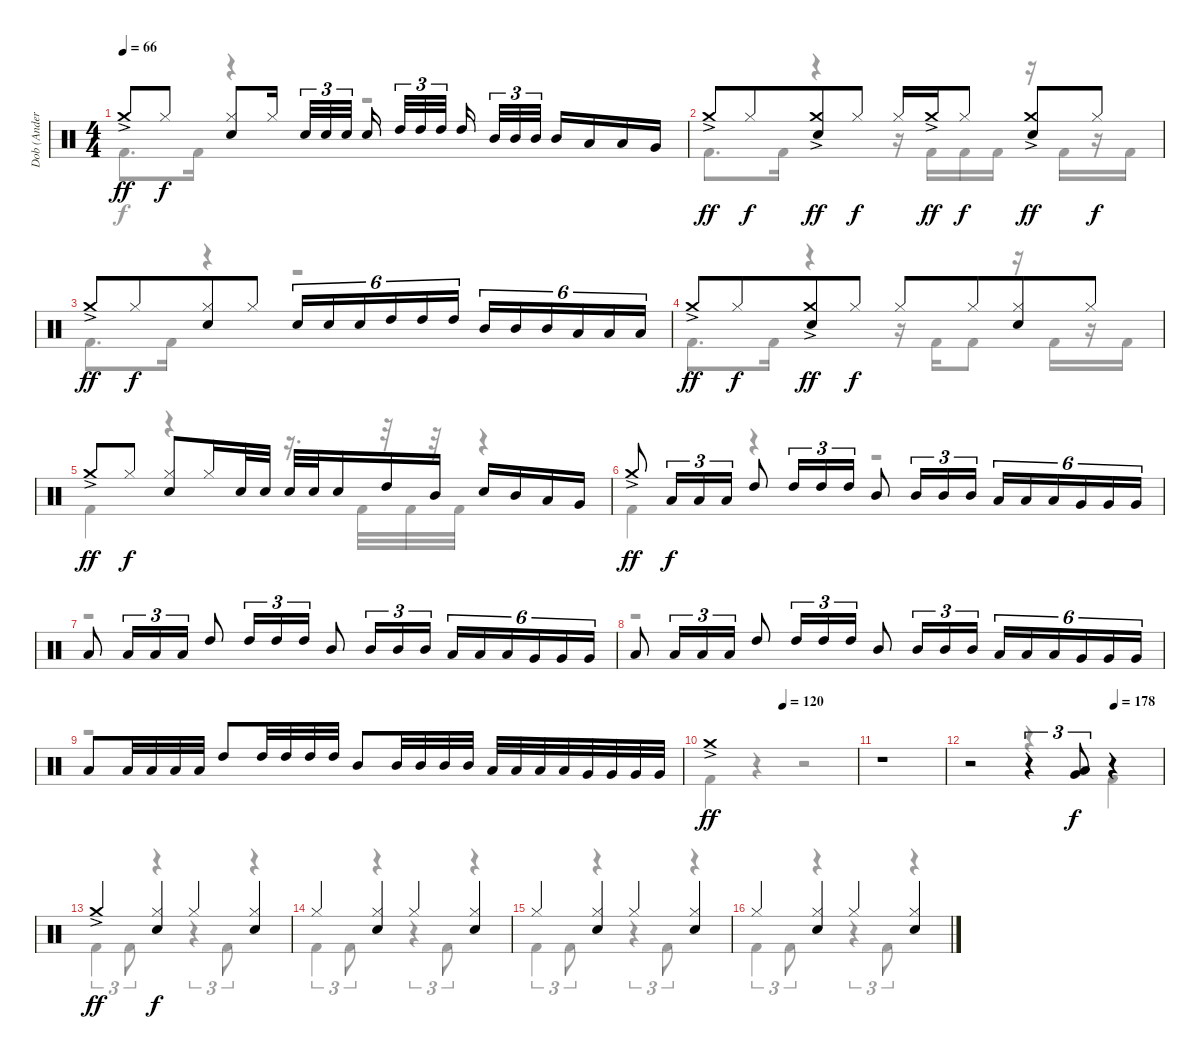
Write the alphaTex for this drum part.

\track ("Dob (Anders Johansson)" "Dob (Ander") {instrument percussion}
\staff {score}
\articulation defaults
\voice
\ts (4 4)
\tempo 66
\clef neutral
\ks c "Crash medium (hit)"{ac}.8{dy ff} "Hi-Hat (closed)".8{dy f beam split}
("Hi-Hat (closed)" "Electric Snare (hit)").8 "Hi-Hat (closed)".16{beam splitsecondary} "Electric Snare (hit)".32{tu (3 2)} "Electric Snare (hit)".32{tu (3 2)} "Electric Snare (hit)".32{tu (3 2)} "Electric Snare (hit)".16{beam splitsecondary} "High Tom (hit)".32{tu (3 2)} "High Tom (hit)".32{tu (3 2)} "High Tom (hit)".32{tu (3 2) beam splitsecondary} "High Tom (hit)".16{beam splitsecondary} "Mid Tom (hit)".32{tu (3 2)} "Mid Tom (hit)".32{tu (3 2)} "Mid Tom (hit)".32{tu (3 2)} "Mid Tom (hit)".16 "Low Tom (hit)".16 "Low Tom (hit)".16 "Very Low Tom (hit)".16 |
"Crash medium (hit)"{ac}.8{dy ff} "Hi-Hat (closed)".8{dy f beam merge} ("Crash medium (hit)"{ac} "Electric Snare (hit)").8{dy ff} "Hi-Hat (closed)".8{dy f} "Hi-Hat (closed)".16 "Crash medium (hit)"{ac}.16{dy ff} "Hi-Hat (closed)".8{dy f beam split} ("Crash medium (hit)"{ac} "Electric Snare (hit)").8{dy ff} "Hi-Hat (closed)".8{dy f} |
"Crash medium (hit)"{ac}.8{dy ff} "Hi-Hat (closed)".8{dy f beam merge} ("Hi-Hat (closed)" "Electric Snare (hit)").8 "Hi-Hat (closed)".8 "Electric Snare (hit)".16{tu (6 4)} "Electric Snare (hit)".16{tu (6 4)} "Electric Snare (hit)".16{tu (6 4)} "High Tom (hit)".16{tu (6 4)} "High Tom (hit)".16{tu (6 4)} "High Tom (hit)".16{tu (6 4)} "Mid Tom (hit)".16{tu (6 4)} "Mid Tom (hit)".16{tu (6 4)} "Mid Tom (hit)".16{tu (6 4)} "Low Tom (hit)".16{tu (6 4)} "Low Tom (hit)".16{tu (6 4)} "Low Tom (hit)".16{tu (6 4)} |
"Crash medium (hit)"{ac}.8{dy ff} "Hi-Hat (closed)".8{dy f beam merge} ("Crash medium (hit)"{ac} "Electric Snare (hit)").8{dy ff} "Hi-Hat (closed)".8{dy f} "Hi-Hat (closed)".8 "Hi-Hat (closed)".8{beam merge} ("Hi-Hat (closed)" "Electric Snare (hit)").8 "Hi-Hat (closed)".8 |
"Crash medium (hit)"{ac}.8{dy ff} "Hi-Hat (closed)".8{dy f beam split} ("Hi-Hat (closed)" "Electric Snare (hit)").8 "Hi-Hat (closed)".16 "Electric Snare (hit)".32 "Electric Snare (hit)".32 "Electric Snare (hit)".32 "Electric Snare (hit)".32 "Electric Snare (hit)".16 "High Tom (hit)".16 "Mid Tom (hit)".16 "Electric Snare (hit)".16 "Mid Tom (hit)".16 "Low Tom (hit)".16 "Very Low Tom (hit)".16 |
"Crash medium (hit)"{ac}.8{dy ff} "Low Tom (hit)".16{tu (3 2) dy f} "Low Tom (hit)".16{tu (3 2)} "Low Tom (hit)".16{tu (3 2)} "High Tom (hit)".8 "High Tom (hit)".16{tu (3 2)} "High Tom (hit)".16{tu (3 2)} "High Tom (hit)".16{tu (3 2)} "Mid Tom (hit)".8 "Mid Tom (hit)".16{tu (3 2)} "Mid Tom (hit)".16{tu (3 2)} "Mid Tom (hit)".16{tu (3 2)} "Low Tom (hit)".16{tu (6 4)} "Low Tom (hit)".16{tu (6 4)} "Low Tom (hit)".16{tu (6 4)} "Very Low Tom (hit)".16{tu (6 4)} "Very Low Tom (hit)".16{tu (6 4)} "Very Low Tom (hit)".16{tu (6 4)} |
"Low Tom (hit)".8 "Low Tom (hit)".16{tu (3 2)} "Low Tom (hit)".16{tu (3 2)} "Low Tom (hit)".16{tu (3 2)} "High Tom (hit)".8 "High Tom (hit)".16{tu (3 2)} "High Tom (hit)".16{tu (3 2)} "High Tom (hit)".16{tu (3 2)} "Mid Tom (hit)".8 "Mid Tom (hit)".16{tu (3 2)} "Mid Tom (hit)".16{tu (3 2)} "Mid Tom (hit)".16{tu (3 2)} "Low Tom (hit)".16{tu (6 4)} "Low Tom (hit)".16{tu (6 4)} "Low Tom (hit)".16{tu (6 4)} "Very Low Tom (hit)".16{tu (6 4)} "Very Low Tom (hit)".16{tu (6 4)} "Very Low Tom (hit)".16{tu (6 4)} |
"Low Tom (hit)".8 "Low Tom (hit)".16{tu (3 2)} "Low Tom (hit)".16{tu (3 2)} "Low Tom (hit)".16{tu (3 2)} "High Tom (hit)".8 "High Tom (hit)".16{tu (3 2)} "High Tom (hit)".16{tu (3 2)} "High Tom (hit)".16{tu (3 2)} "Mid Tom (hit)".8 "Mid Tom (hit)".16{tu (3 2)} "Mid Tom (hit)".16{tu (3 2)} "Mid Tom (hit)".16{tu (3 2)} "Low Tom (hit)".16{tu (6 4)} "Low Tom (hit)".16{tu (6 4)} "Low Tom (hit)".16{tu (6 4)} "Very Low Tom (hit)".16{tu (6 4)} "Very Low Tom (hit)".16{tu (6 4)} "Very Low Tom (hit)".16{tu (6 4)} |
"Low Tom (hit)".8 "Low Tom (hit)".32 "Low Tom (hit)".32 "Low Tom (hit)".32 "Low Tom (hit)".32 "High Tom (hit)".8 "High Tom (hit)".32 "High Tom (hit)".32 "High Tom (hit)".32 "High Tom (hit)".32 "Mid Tom (hit)".8 "Mid Tom (hit)".32 "Mid Tom (hit)".32 "Mid Tom (hit)".32 "Mid Tom (hit)".32 "Low Tom (hit)".32 "Low Tom (hit)".32 "Low Tom (hit)".32 "Low Tom (hit)".32 "Very Low Tom (hit)".32 "Very Low Tom (hit)".32 "Very Low Tom (hit)".32 "Very Low Tom (hit)".32 |
\tempo (120 0.49895833333333334)
"Crash medium (hit)"{ac}.1{dy ff} |
r.1 |
\tempo (178 0.75)
r.2 r.4{tu (3 2)} ("Low Tom (hit)" "Very Low Tom (hit)").8{tu (3 2) dy f} r.4 |
"Crash medium (hit)"{ac}.4{dy ff} ("Hi-Hat (closed)" "Electric Snare (hit)").4{dy f} "Hi-Hat (closed)".4 ("Hi-Hat (closed)" "Electric Snare (hit)").4 |
"Hi-Hat (closed)".4 ("Hi-Hat (closed)" "Electric Snare (hit)").4 "Hi-Hat (closed)".4 ("Hi-Hat (closed)" "Electric Snare (hit)").4 |
"Hi-Hat (closed)".4 ("Hi-Hat (closed)" "Electric Snare (hit)").4 "Hi-Hat (closed)".4 ("Hi-Hat (closed)" "Electric Snare (hit)").4 |
"Hi-Hat (closed)".4 ("Hi-Hat (closed)" "Electric Snare (hit)").4 "Hi-Hat (closed)".4 ("Hi-Hat (closed)" "Electric Snare (hit)").4
\voice
\clef neutral
\ottava regular
\simile none
\ks c "Kick (hit) 2".8{d dy f} "Kick (hit) 2".16
r.4 r.2 |
"Kick (hit) 2".8{d} "Kick (hit) 2".16 r.4 r.16 "Kick (hit) 2".16 "Kick (hit) 2".16 "Kick (hit) 2".16 r.16 "Kick (hit) 2".16 r.16 "Kick (hit) 2".16 |
"Kick (hit) 2".8{d} "Kick (hit) 2".16 r.4 r.2 |
"Kick (hit) 2".8{d} "Kick (hit) 2".16 r.4 r.16 "Kick (hit) 2".16 "Kick (hit) 2".8 r.16 "Kick (hit) 2".16 r.16 "Kick (hit) 2".16 |
"Kick (hit) 2".4 r.4 r.16{d} "Kick (hit) 2".32 r.32 "Kick (hit) 2".32 r.32 "Kick (hit) 2".32 r.4 |
"Kick (hit) 2".4 r.4 r.2 |
r.1 |
r.1 |
r.1 |
"Kick (hit) 2".4 r.4 r.2 |
r.1 |
r.2 r.4 "Kick (hit) 2".4 |
"Kick (hit) 2".4{tu (3 2)} "Kick (hit) 2".8{tu (3 2)} r.4 r.4{tu (3 2)} "Kick (hit) 2".8{tu (3 2)} r.4 |
"Kick (hit) 2".4{tu (3 2)} "Kick (hit) 2".8{tu (3 2)} r.4 r.4{tu (3 2)} "Kick (hit) 2".8{tu (3 2)} r.4 |
"Kick (hit) 2".4{tu (3 2)} "Kick (hit) 2".8{tu (3 2)} r.4 r.4{tu (3 2)} "Kick (hit) 2".8{tu (3 2)} r.4 |
"Kick (hit) 2".4{tu (3 2)} "Kick (hit) 2".8{tu (3 2)} r.4 r.4{tu (3 2)} "Kick (hit) 2".8{tu (3 2)} r.4
